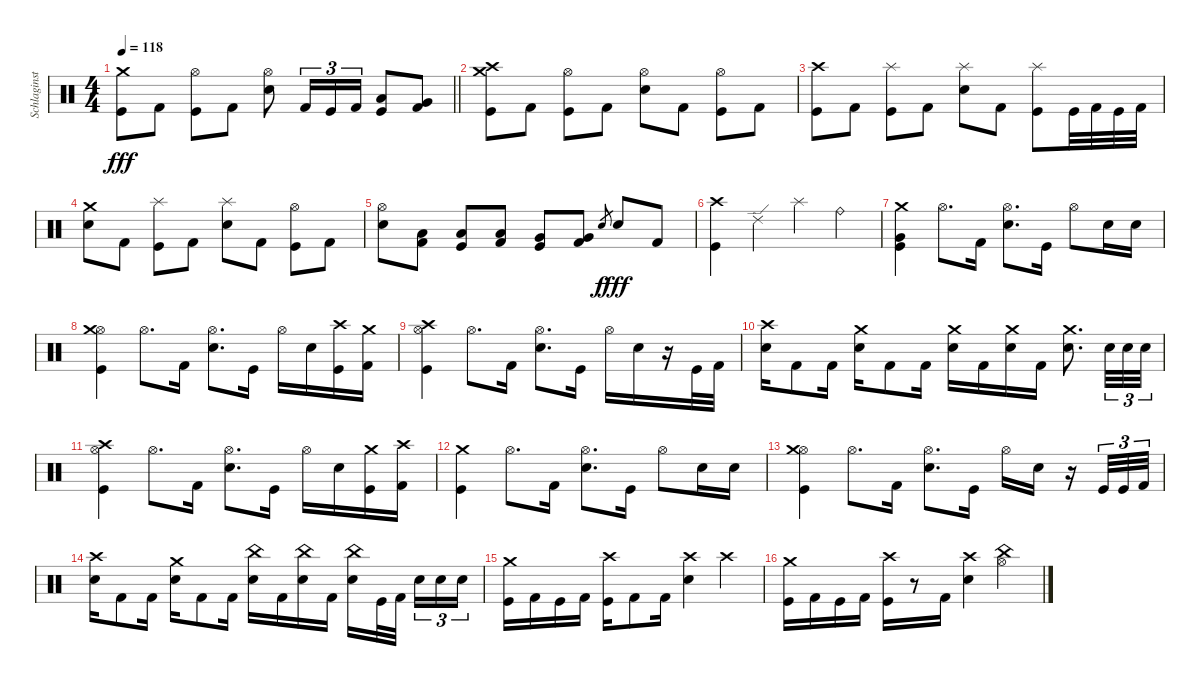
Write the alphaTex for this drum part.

\track ("Schlaginstrumente - Auswahl" "Schlaginst") {instrument percussion}
\staff {score}
\articulation defaults
\ts (4 4)
\tempo 118
\clef neutral
\barLineRight lightlight
\ks c
("Crash medium (hit)" "Kick (hit)").8{dy fff} "Kick (hit) 2".8 ("Hi-Hat (open)" "Kick (hit)").8 "Kick (hit) 2".8 ("Hi-Hat (open)" "Snare (hit) 2").8 "Kick (hit) 2".16{tu (3 2)} "Kick (hit)".16{tu (3 2)} "Kick (hit) 2".16{tu (3 2)} ("Low Tom (hit)" "Kick (hit)").8 ("Very Low Tom (hit)" "Kick (hit) 2").8 |
\section ("" "")
("Crash medium (hit)" "Crash high (hit)" "Kick (hit)").8 "Kick (hit) 2".8 ("Hi-Hat (open)" "Kick (hit)").8 "Kick (hit) 2".8 ("Hi-Hat (open)" "Snare (hit) 2").8 "Kick (hit) 2".8 ("Hi-Hat (open)" "Kick (hit)").8 "Kick (hit) 2".8 |
("Crash high (hit)" "Kick (hit)").8 "Kick (hit) 2".8 ("Splash (hit)" "Kick (hit)").8 "Kick (hit) 2".8 ("Splash (hit)" "Snare (hit) 2").8 "Kick (hit) 2".8 ("Splash (hit)" "Kick (hit)").8 "Kick (hit)".32 "Kick (hit) 2".32 "Kick (hit)".32 "Kick (hit) 2".32 |
("Crash medium (hit)" "Snare (hit) 2").8 "Kick (hit) 2".8 ("Splash (hit)" "Kick (hit)").8 "Kick (hit) 2".8 ("Splash (hit)" "Snare (hit) 2").8 "Kick (hit) 2".8 ("Hi-Hat (open)" "Kick (hit)").8 "Kick (hit) 2".8 |
("Snare (hit) 2" "Hi-Hat (open)").8 ("Low Tom (hit)" "Kick (hit) 2").8 ("Low Tom (hit)" "Kick (hit)").8 ("Low Tom (hit)" "Kick (hit) 2").8 ("Very Low Tom (hit)" "Kick (hit)").8 ("Very Low Tom (hit)" "Kick (hit) 2").8 "Snare (hit) 2".8{gr dy f} "Snare (hit) 2".8{dy fff} "Kick (hit) 2".8 |
("Crash high (hit)" "Kick (hit)").4 "Ride (edge) 2".4 "Splash (hit)".4 "Ride (bell)".4 |
("Crash medium (hit)" "Very Low Tom (hit)" "Kick (hit)").4 "Hi-Hat (open)".8{d} "Kick (hit) 2".16 ("Hi-Hat (open)" "Snare (hit) 2").8{d} "Kick (hit)".16 "Hi-Hat (open)".8 "Snare (hit) 2".16 "Snare (hit) 2".16 |
("Hi-Hat (open)" "Crash medium (hit)" "Kick (hit)").4 "Hi-Hat (open)".8{d} "Kick (hit) 2".16 ("Hi-Hat (open)" "Snare (hit) 2").8{d} "Kick (hit)".16 "Hi-Hat (open)".16 "Snare (hit) 2".16 ("Crash high (hit)" "Kick (hit)").16 ("Crash medium (hit)" "Kick (hit) 2").16 |
("Hi-Hat (open)" "Crash high (hit)" "Kick (hit)").4 "Hi-Hat (open)".8{d} "Kick (hit) 2".16 ("Hi-Hat (open)" "Snare (hit) 2").8{d} "Kick (hit)".16 "Hi-Hat (open)".16 "Snare (hit) 2".16 r.16 "Kick (hit)".32 "Kick (hit) 2".32 |
("Crash high (hit)" "Snare (hit) 2").16 "Kick (hit) 2".8 "Kick (hit) 2".16 ("Crash medium (hit)" "Snare (hit) 2").16 "Kick (hit) 2".8 "Kick (hit) 2".16 ("Crash medium (hit)" "Snare (hit) 2").16 "Kick (hit) 2".16 ("Crash medium (hit)" "Snare (hit) 2").16 "Kick (hit) 2".16 ("Crash medium (hit)" "Snare (hit) 2").8{d} "Snare (hit) 2".32{tu (3 2)} "Snare (hit) 2".32{tu (3 2)} "Snare (hit) 2".32{tu (3 2)} |
("Hi-Hat (open)" "Crash high (hit)" "Kick (hit)").4 "Hi-Hat (open)".8{d} "Kick (hit) 2".16 ("Hi-Hat (open)" "Snare (hit) 2").8{d} "Kick (hit)".16 "Hi-Hat (open)".16 "Snare (hit) 2".16 ("Crash medium (hit)" "Kick (hit)").16 ("Crash high (hit)" "Kick (hit) 2").16 |
("Crash medium (hit)" "Kick (hit)").4 "Hi-Hat (open)".8{d} "Kick (hit) 2".16 ("Hi-Hat (open)" "Snare (hit) 2").8{d} "Kick (hit)".16 "Hi-Hat (open)".8 "Snare (hit) 2".16 "Snare (hit) 2".16 |
("Hi-Hat (open)" "Crash medium (hit)" "Kick (hit)").4 "Hi-Hat (open)".8{d} "Kick (hit) 2".16 ("Hi-Hat (open)" "Snare (hit) 2").8{d} "Kick (hit)".16 "Hi-Hat (open)".16 "Snare (hit) 2".16 r.16 "Kick (hit)".32{tu (3 2)} "Kick (hit)".32{tu (3 2)} "Kick (hit) 2".32{tu (3 2)} |
("Crash high (hit)" "Snare (hit) 2").16 "Kick (hit) 2".8 "Kick (hit) 2".16 ("Crash medium (hit)" "Snare (hit) 2").16 "Kick (hit) 2".8 "Kick (hit) 2".16 ("China (hit)" "Snare (hit) 2").16 "Kick (hit) 2".16 ("China (hit)" "Snare (hit) 2").16 "Kick (hit) 2".16 ("China (hit)" "Snare (hit) 2").16 "Kick (hit)".32 "Kick (hit) 2".32{beam splitsecondary} "Snare (hit) 2".16{tu (3 2)} "Snare (hit) 2".16{tu (3 2)} "Snare (hit) 2".16{tu (3 2)} |
("Crash medium (hit)" "Kick (hit)").16 "Kick (hit) 2".16 "Kick (hit)".16 "Kick (hit) 2".16 ("Crash high (hit)" "Kick (hit)").16 "Kick (hit) 2".8 "Kick (hit) 2".16 ("Crash high (hit)" "Snare (hit) 2").4 "Crash high (hit)".4 |
("Crash medium (hit)" "Kick (hit)").16 "Kick (hit) 2".16 "Kick (hit)".16 "Kick (hit) 2".16 ("Crash high (hit)" "Kick (hit)").16 r.8 "Kick (hit) 2".16 ("Crash high (hit)" "Snare (hit) 2").4 ("China (hit)" "Hi-Hat (open)").4
